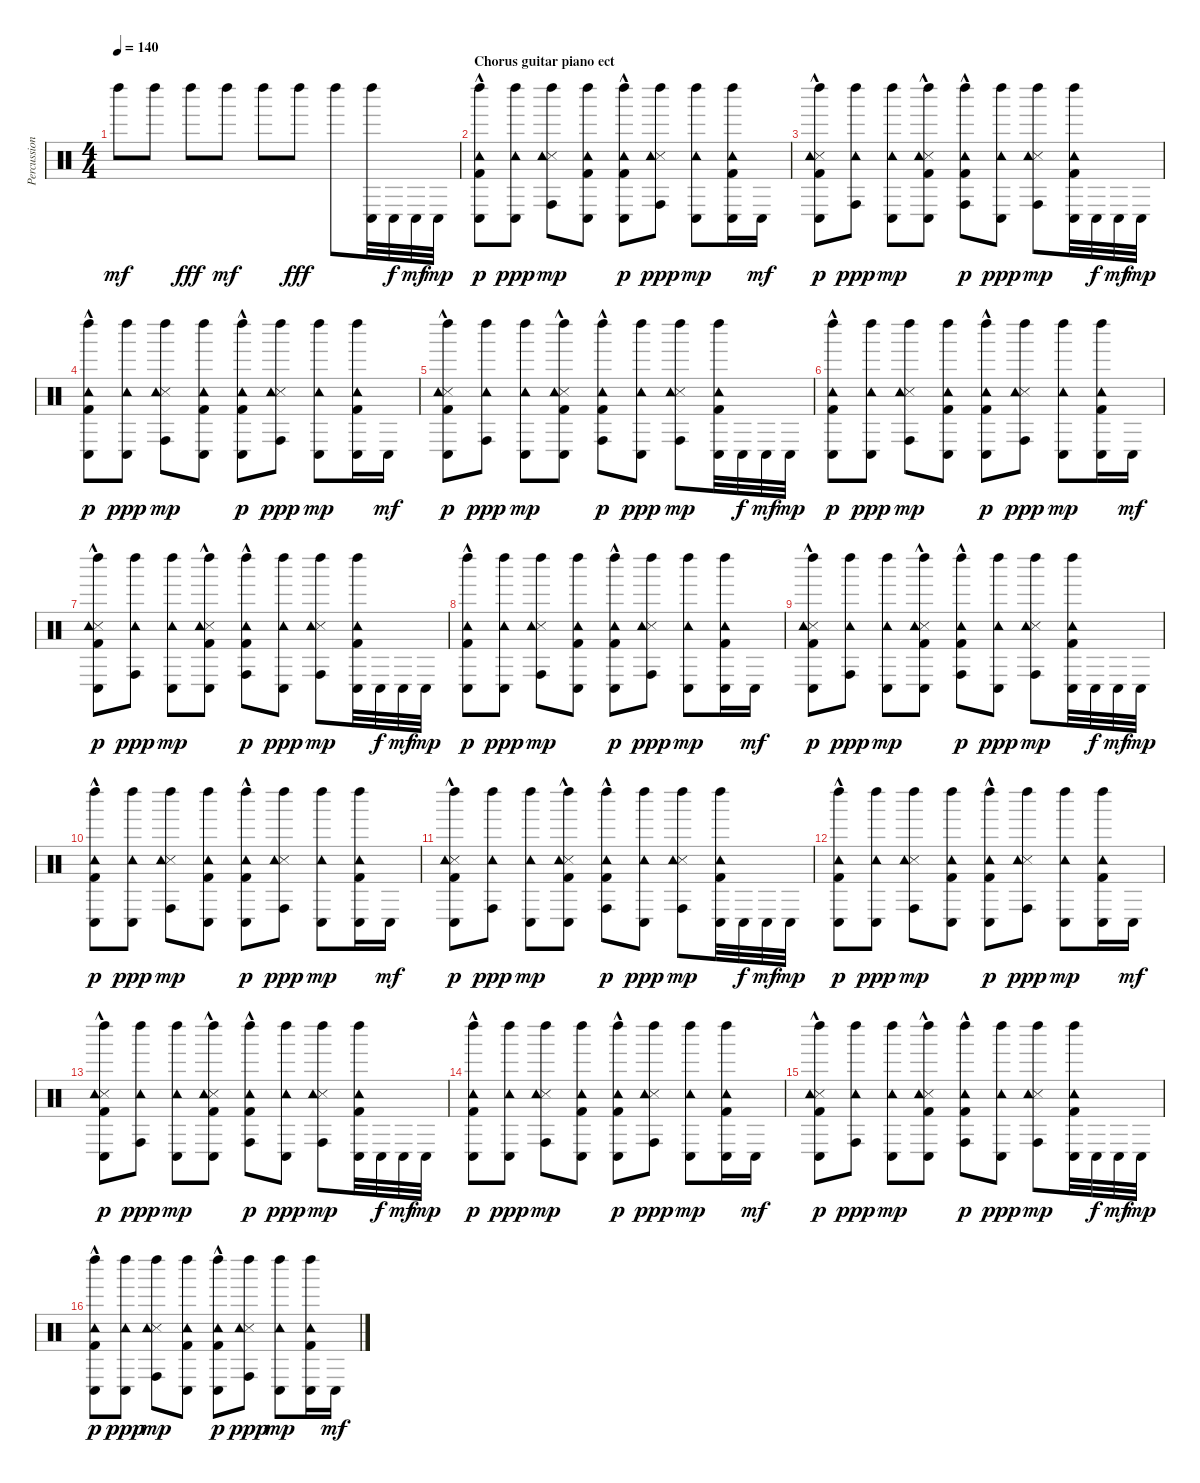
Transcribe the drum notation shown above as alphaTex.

\track ("Percussions" "Percussion") {instrument percussion}
\staff {score}
\articulation defaults
\ts (4 4)
\tempo 140
\clef neutral
\ks c "Left Maraca (hit)".8{dy mf} "Left Maraca (hit)".8 "Left Maraca (hit)".8{dy fff} "Left Maraca (hit)".8{dy mf} "Left Maraca (hit)".8 "Left Maraca (hit)".8{dy fff} "Left Maraca (hit)".8
("Left Maraca (hit)" "Conga low (hit)").32 "Conga low (hit)".32{dy f} "Conga low (hit)".32{dy mf} "Conga low (hit)".32{dy mp} |
\section ("" "Chorus guitar piano ect")
("Kick (hit) 2"{hac} "Left Maraca (hit)" "Conga low (hit)" "Tambourine (hit)").8{dy p} ("Left Maraca (hit)" "Conga low (hit)" "Tambourine (hit)").8{dy ppp} ("Snare (side stick) 3" "Left Maraca (hit)" "Conga high (hit)" "Tambourine (hit)").8{dy mp} ("Kick (hit) 2" "Left Maraca (hit)" "Conga low (hit)" "Tambourine (hit)").8 ("Kick (hit) 2"{hac} "Left Maraca (hit)" "Conga low (hit)" "Tambourine (hit)").8{dy p} ("Snare (side stick) 3" "Left Maraca (hit)" "Conga high (hit)" "Tambourine (hit)").8{dy ppp} ("Left Maraca (hit)" "Conga low (hit)" "Tambourine (hit)").8{dy mp} ("Kick (hit) 2" "Left Maraca (hit)" "Conga low (hit)" "Tambourine (hit)").16 "Conga low (hit)".16{dy mf} |
("Snare (side stick) 3"{hac} "Kick (hit) 2"{hac} "Left Maraca (hit)" "Conga low (hit)" "Tambourine (hit)").8{dy p} ("Left Maraca (hit)" "Conga high (hit)" "Tambourine (hit)").8{dy ppp} ("Left Maraca (hit)" "Conga low (hit)" "Tambourine (hit)").8{dy mp} ("Snare (side stick) 3"{hac} "Kick (hit) 2" "Left Maraca (hit)" "Conga low (hit)" "Tambourine (hit)").8 ("Kick (hit) 2"{hac} "Left Maraca (hit)" "Conga high (hit)" "Tambourine (hit)").8{dy p} ("Left Maraca (hit)" "Conga low (hit)" "Tambourine (hit)").8{dy ppp} ("Snare (side stick) 3" "Left Maraca (hit)" "Conga high (hit)" "Tambourine (hit)").8{dy mp} ("Kick (hit) 2" "Left Maraca (hit)" "Conga low (hit)" "Tambourine (hit)").32 "Conga low (hit)".32{dy f} "Conga low (hit)".32{dy mf} "Conga low (hit)".32{dy mp} |
("Kick (hit) 2"{hac} "Left Maraca (hit)" "Conga low (hit)" "Tambourine (hit)").8{dy p} ("Left Maraca (hit)" "Conga low (hit)" "Tambourine (hit)").8{dy ppp} ("Snare (side stick) 3" "Left Maraca (hit)" "Conga high (hit)" "Tambourine (hit)").8{dy mp} ("Kick (hit) 2" "Left Maraca (hit)" "Conga low (hit)" "Tambourine (hit)").8 ("Kick (hit) 2"{hac} "Left Maraca (hit)" "Conga low (hit)" "Tambourine (hit)").8{dy p} ("Snare (side stick) 3" "Left Maraca (hit)" "Conga high (hit)" "Tambourine (hit)").8{dy ppp} ("Left Maraca (hit)" "Conga low (hit)" "Tambourine (hit)").8{dy mp} ("Kick (hit) 2" "Left Maraca (hit)" "Conga low (hit)" "Tambourine (hit)").16 "Conga low (hit)".16{dy mf} |
("Snare (side stick) 3"{hac} "Kick (hit) 2"{hac} "Left Maraca (hit)" "Conga low (hit)" "Tambourine (hit)").8{dy p} ("Left Maraca (hit)" "Conga high (hit)" "Tambourine (hit)").8{dy ppp} ("Left Maraca (hit)" "Conga low (hit)" "Tambourine (hit)").8{dy mp} ("Snare (side stick) 3"{hac} "Kick (hit) 2" "Left Maraca (hit)" "Conga low (hit)" "Tambourine (hit)").8 ("Kick (hit) 2"{hac} "Left Maraca (hit)" "Conga high (hit)" "Tambourine (hit)").8{dy p} ("Left Maraca (hit)" "Conga low (hit)" "Tambourine (hit)").8{dy ppp} ("Snare (side stick) 3" "Left Maraca (hit)" "Conga high (hit)" "Tambourine (hit)").8{dy mp} ("Kick (hit) 2" "Left Maraca (hit)" "Conga low (hit)" "Tambourine (hit)").32 "Conga low (hit)".32{dy f} "Conga low (hit)".32{dy mf} "Conga low (hit)".32{dy mp} |
("Kick (hit) 2"{hac} "Left Maraca (hit)" "Conga low (hit)" "Tambourine (hit)").8{dy p} ("Left Maraca (hit)" "Conga low (hit)" "Tambourine (hit)").8{dy ppp} ("Snare (side stick) 3" "Left Maraca (hit)" "Conga high (hit)" "Tambourine (hit)").8{dy mp} ("Kick (hit) 2" "Left Maraca (hit)" "Conga low (hit)" "Tambourine (hit)").8 ("Kick (hit) 2"{hac} "Left Maraca (hit)" "Conga low (hit)" "Tambourine (hit)").8{dy p} ("Snare (side stick) 3" "Left Maraca (hit)" "Conga high (hit)" "Tambourine (hit)").8{dy ppp} ("Left Maraca (hit)" "Conga low (hit)" "Tambourine (hit)").8{dy mp} ("Kick (hit) 2" "Left Maraca (hit)" "Conga low (hit)" "Tambourine (hit)").16 "Conga low (hit)".16{dy mf} |
("Snare (side stick) 3"{hac} "Kick (hit) 2"{hac} "Left Maraca (hit)" "Conga low (hit)" "Tambourine (hit)").8{dy p} ("Left Maraca (hit)" "Conga high (hit)" "Tambourine (hit)").8{dy ppp} ("Left Maraca (hit)" "Conga low (hit)" "Tambourine (hit)").8{dy mp} ("Snare (side stick) 3"{hac} "Kick (hit) 2" "Left Maraca (hit)" "Conga low (hit)" "Tambourine (hit)").8 ("Kick (hit) 2"{hac} "Left Maraca (hit)" "Conga high (hit)" "Tambourine (hit)").8{dy p} ("Left Maraca (hit)" "Conga low (hit)" "Tambourine (hit)").8{dy ppp} ("Snare (side stick) 3" "Left Maraca (hit)" "Conga high (hit)" "Tambourine (hit)").8{dy mp} ("Kick (hit) 2" "Left Maraca (hit)" "Conga low (hit)" "Tambourine (hit)").32 "Conga low (hit)".32{dy f} "Conga low (hit)".32{dy mf} "Conga low (hit)".32{dy mp} |
("Kick (hit) 2"{hac} "Left Maraca (hit)" "Conga low (hit)" "Tambourine (hit)").8{dy p} ("Left Maraca (hit)" "Conga low (hit)" "Tambourine (hit)").8{dy ppp} ("Snare (side stick) 3" "Left Maraca (hit)" "Conga high (hit)" "Tambourine (hit)").8{dy mp} ("Kick (hit) 2" "Left Maraca (hit)" "Conga low (hit)" "Tambourine (hit)").8 ("Kick (hit) 2"{hac} "Left Maraca (hit)" "Conga low (hit)" "Tambourine (hit)").8{dy p} ("Snare (side stick) 3" "Left Maraca (hit)" "Conga high (hit)" "Tambourine (hit)").8{dy ppp} ("Left Maraca (hit)" "Conga low (hit)" "Tambourine (hit)").8{dy mp} ("Kick (hit) 2" "Left Maraca (hit)" "Conga low (hit)" "Tambourine (hit)").16 "Conga low (hit)".16{dy mf} |
("Snare (side stick) 3"{hac} "Kick (hit) 2"{hac} "Left Maraca (hit)" "Conga low (hit)" "Tambourine (hit)").8{dy p} ("Left Maraca (hit)" "Conga high (hit)" "Tambourine (hit)").8{dy ppp} ("Left Maraca (hit)" "Conga low (hit)" "Tambourine (hit)").8{dy mp} ("Snare (side stick) 3"{hac} "Kick (hit) 2" "Left Maraca (hit)" "Conga low (hit)" "Tambourine (hit)").8 ("Kick (hit) 2"{hac} "Left Maraca (hit)" "Conga high (hit)" "Tambourine (hit)").8{dy p} ("Left Maraca (hit)" "Conga low (hit)" "Tambourine (hit)").8{dy ppp} ("Snare (side stick) 3" "Left Maraca (hit)" "Conga high (hit)" "Tambourine (hit)").8{dy mp} ("Kick (hit) 2" "Left Maraca (hit)" "Conga low (hit)" "Tambourine (hit)").32 "Conga low (hit)".32{dy f} "Conga low (hit)".32{dy mf} "Conga low (hit)".32{dy mp} |
("Kick (hit) 2"{hac} "Left Maraca (hit)" "Conga low (hit)" "Tambourine (hit)").8{dy p} ("Left Maraca (hit)" "Conga low (hit)" "Tambourine (hit)").8{dy ppp} ("Snare (side stick) 3" "Left Maraca (hit)" "Conga high (hit)" "Tambourine (hit)").8{dy mp} ("Kick (hit) 2" "Left Maraca (hit)" "Conga low (hit)" "Tambourine (hit)").8 ("Kick (hit) 2"{hac} "Left Maraca (hit)" "Conga low (hit)" "Tambourine (hit)").8{dy p} ("Snare (side stick) 3" "Left Maraca (hit)" "Conga high (hit)" "Tambourine (hit)").8{dy ppp} ("Left Maraca (hit)" "Conga low (hit)" "Tambourine (hit)").8{dy mp} ("Kick (hit) 2" "Left Maraca (hit)" "Conga low (hit)" "Tambourine (hit)").16 "Conga low (hit)".16{dy mf} |
("Snare (side stick) 3"{hac} "Kick (hit) 2"{hac} "Left Maraca (hit)" "Conga low (hit)" "Tambourine (hit)").8{dy p} ("Left Maraca (hit)" "Conga high (hit)" "Tambourine (hit)").8{dy ppp} ("Left Maraca (hit)" "Conga low (hit)" "Tambourine (hit)").8{dy mp} ("Snare (side stick) 3"{hac} "Kick (hit) 2" "Left Maraca (hit)" "Conga low (hit)" "Tambourine (hit)").8 ("Kick (hit) 2"{hac} "Left Maraca (hit)" "Conga high (hit)" "Tambourine (hit)").8{dy p} ("Left Maraca (hit)" "Conga low (hit)" "Tambourine (hit)").8{dy ppp} ("Snare (side stick) 3" "Left Maraca (hit)" "Conga high (hit)" "Tambourine (hit)").8{dy mp} ("Kick (hit) 2" "Left Maraca (hit)" "Conga low (hit)" "Tambourine (hit)").32 "Conga low (hit)".32{dy f} "Conga low (hit)".32{dy mf} "Conga low (hit)".32{dy mp} |
("Kick (hit) 2"{hac} "Left Maraca (hit)" "Conga low (hit)" "Tambourine (hit)").8{dy p} ("Left Maraca (hit)" "Conga low (hit)" "Tambourine (hit)").8{dy ppp} ("Snare (side stick) 3" "Left Maraca (hit)" "Conga high (hit)" "Tambourine (hit)").8{dy mp} ("Kick (hit) 2" "Left Maraca (hit)" "Conga low (hit)" "Tambourine (hit)").8 ("Kick (hit) 2"{hac} "Left Maraca (hit)" "Conga low (hit)" "Tambourine (hit)").8{dy p} ("Snare (side stick) 3" "Left Maraca (hit)" "Conga high (hit)" "Tambourine (hit)").8{dy ppp} ("Left Maraca (hit)" "Conga low (hit)" "Tambourine (hit)").8{dy mp} ("Kick (hit) 2" "Left Maraca (hit)" "Conga low (hit)" "Tambourine (hit)").16 "Conga low (hit)".16{dy mf} |
("Snare (side stick) 3"{hac} "Kick (hit) 2"{hac} "Left Maraca (hit)" "Conga low (hit)" "Tambourine (hit)").8{dy p} ("Left Maraca (hit)" "Conga high (hit)" "Tambourine (hit)").8{dy ppp} ("Left Maraca (hit)" "Conga low (hit)" "Tambourine (hit)").8{dy mp} ("Snare (side stick) 3"{hac} "Kick (hit) 2" "Left Maraca (hit)" "Conga low (hit)" "Tambourine (hit)").8 ("Kick (hit) 2"{hac} "Left Maraca (hit)" "Conga high (hit)" "Tambourine (hit)").8{dy p} ("Left Maraca (hit)" "Conga low (hit)" "Tambourine (hit)").8{dy ppp} ("Snare (side stick) 3" "Left Maraca (hit)" "Conga high (hit)" "Tambourine (hit)").8{dy mp} ("Kick (hit) 2" "Left Maraca (hit)" "Conga low (hit)" "Tambourine (hit)").32 "Conga low (hit)".32{dy f} "Conga low (hit)".32{dy mf} "Conga low (hit)".32{dy mp} |
("Kick (hit) 2"{hac} "Left Maraca (hit)" "Conga low (hit)" "Tambourine (hit)").8{dy p} ("Left Maraca (hit)" "Conga low (hit)" "Tambourine (hit)").8{dy ppp} ("Snare (side stick) 3" "Left Maraca (hit)" "Conga high (hit)" "Tambourine (hit)").8{dy mp} ("Kick (hit) 2" "Left Maraca (hit)" "Conga low (hit)" "Tambourine (hit)").8 ("Kick (hit) 2"{hac} "Left Maraca (hit)" "Conga low (hit)" "Tambourine (hit)").8{dy p} ("Snare (side stick) 3" "Left Maraca (hit)" "Conga high (hit)" "Tambourine (hit)").8{dy ppp} ("Left Maraca (hit)" "Conga low (hit)" "Tambourine (hit)").8{dy mp} ("Kick (hit) 2" "Left Maraca (hit)" "Conga low (hit)" "Tambourine (hit)").16 "Conga low (hit)".16{dy mf} |
("Snare (side stick) 3"{hac} "Kick (hit) 2"{hac} "Left Maraca (hit)" "Conga low (hit)" "Tambourine (hit)").8{dy p} ("Left Maraca (hit)" "Conga high (hit)" "Tambourine (hit)").8{dy ppp} ("Left Maraca (hit)" "Conga low (hit)" "Tambourine (hit)").8{dy mp} ("Snare (side stick) 3"{hac} "Kick (hit) 2" "Left Maraca (hit)" "Conga low (hit)" "Tambourine (hit)").8 ("Kick (hit) 2"{hac} "Left Maraca (hit)" "Conga high (hit)" "Tambourine (hit)").8{dy p} ("Left Maraca (hit)" "Conga low (hit)" "Tambourine (hit)").8{dy ppp} ("Snare (side stick) 3" "Left Maraca (hit)" "Conga high (hit)" "Tambourine (hit)").8{dy mp} ("Kick (hit) 2" "Left Maraca (hit)" "Conga low (hit)" "Tambourine (hit)").32 "Conga low (hit)".32{dy f} "Conga low (hit)".32{dy mf} "Conga low (hit)".32{dy mp} |
("Kick (hit) 2"{hac} "Left Maraca (hit)" "Conga low (hit)" "Tambourine (hit)").8{dy p} ("Left Maraca (hit)" "Conga low (hit)" "Tambourine (hit)").8{dy ppp} ("Snare (side stick) 3" "Left Maraca (hit)" "Conga high (hit)" "Tambourine (hit)").8{dy mp} ("Kick (hit) 2" "Left Maraca (hit)" "Conga low (hit)" "Tambourine (hit)").8 ("Kick (hit) 2"{hac} "Left Maraca (hit)" "Conga low (hit)" "Tambourine (hit)").8{dy p} ("Snare (side stick) 3" "Left Maraca (hit)" "Conga high (hit)" "Tambourine (hit)").8{dy ppp} ("Left Maraca (hit)" "Conga low (hit)" "Tambourine (hit)").8{dy mp} ("Kick (hit) 2" "Left Maraca (hit)" "Conga low (hit)" "Tambourine (hit)").16 "Conga low (hit)".16{dy mf}
